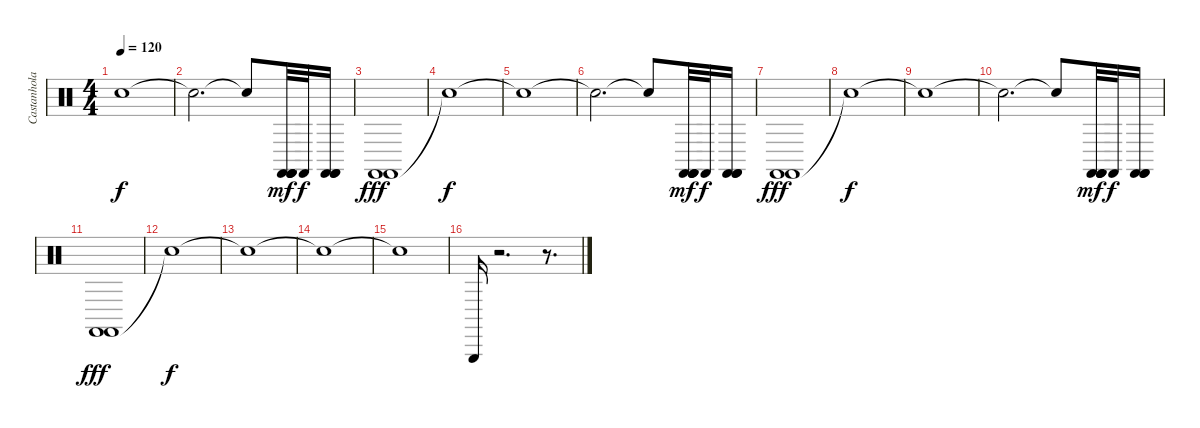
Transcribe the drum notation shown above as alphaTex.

\track ("Castanholas etc. ïåğêóññèÿ" "Castanhola") {instrument percussion}
\staff {score}
\articulation defaults
\ts (4 4)
\tempo 120
\clef neutral
\ks c "Snare (hit)"{t}.1{dy f}
|
"Snare (hit)"{t}.2{d} "Snare (hit)"{t}.8 ("Castanets (hit)" "Castanets (hit)" "Castanets (hit)" "Castanets (hit)").32{dy mf} "Castanets (hit)".32{dy f} ("Castanets (hit)" "Castanets (hit)" "Castanets (hit)").16 |
("Castanets (hit)" "Castanets (hit)").1{dy fff} |
"Snare (hit)"{t}.1{dy f} |
"Snare (hit)"{t}.1 |
"Snare (hit)"{t}.2{d} "Snare (hit)"{t}.8 ("Castanets (hit)" "Castanets (hit)" "Castanets (hit)" "Castanets (hit)").32{dy mf} "Castanets (hit)".32{dy f} ("Castanets (hit)" "Castanets (hit)" "Castanets (hit)").16 |
("Castanets (hit)" "Castanets (hit)").1{dy fff} |
"Snare (hit)"{t}.1{dy f} |
"Snare (hit)"{t}.1 |
"Snare (hit)"{t}.2{d} "Snare (hit)"{t}.8 ("Castanets (hit)" "Castanets (hit)" "Castanets (hit)" "Castanets (hit)").32{dy mf} "Castanets (hit)".32{dy f} ("Castanets (hit)" "Castanets (hit)" "Castanets (hit)").16 |
("Castanets (hit)" "Castanets (hit)").1{dy fff} |
"Snare (hit)"{t}.1{dy f} |
"Snare (hit)"{t}.1 |
"Snare (hit)"{t}.1 |
"Snare (hit)"{t}.1 |
"Triangle (hit)".16 r.2{d} r.8{d}
